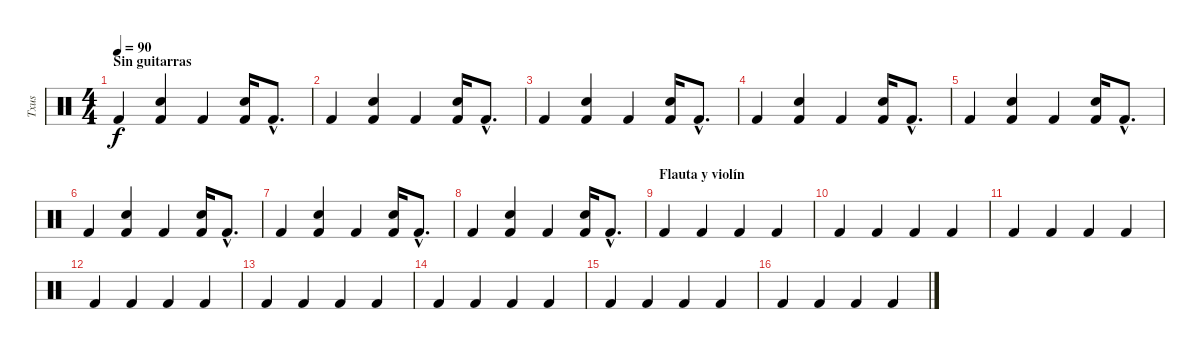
\track ("Txus" "Txus") {instrument percussion}
\staff {score}
\articulation defaults
\ts (4 4)
\section ("" "Sin guitarras")
\tempo 90
\clef neutral
\ks c "Kick (hit) 2".4{dy f}
("Kick (hit) 2" "Electric Snare (hit)").4 "Kick (hit) 2".4 ("Kick (hit) 2" "Electric Snare (hit)").16 "Kick (hit) 2"{hac}.8{d} |
"Kick (hit) 2".4 ("Kick (hit) 2" "Electric Snare (hit)").4 "Kick (hit) 2".4 ("Kick (hit) 2" "Electric Snare (hit)").16 "Kick (hit) 2"{hac}.8{d} |
"Kick (hit) 2".4 ("Kick (hit) 2" "Electric Snare (hit)").4 "Kick (hit) 2".4 ("Kick (hit) 2" "Electric Snare (hit)").16 "Kick (hit) 2"{hac}.8{d} |
"Kick (hit) 2".4 ("Kick (hit) 2" "Electric Snare (hit)").4 "Kick (hit) 2".4 ("Kick (hit) 2" "Electric Snare (hit)").16 "Kick (hit) 2"{hac}.8{d} |
"Kick (hit) 2".4 ("Kick (hit) 2" "Electric Snare (hit)").4 "Kick (hit) 2".4 ("Kick (hit) 2" "Electric Snare (hit)").16 "Kick (hit) 2"{hac}.8{d} |
"Kick (hit) 2".4 ("Kick (hit) 2" "Electric Snare (hit)").4 "Kick (hit) 2".4 ("Kick (hit) 2" "Electric Snare (hit)").16 "Kick (hit) 2"{hac}.8{d} |
"Kick (hit) 2".4 ("Kick (hit) 2" "Electric Snare (hit)").4 "Kick (hit) 2".4 ("Kick (hit) 2" "Electric Snare (hit)").16 "Kick (hit) 2"{hac}.8{d} |
"Kick (hit) 2".4 ("Kick (hit) 2" "Electric Snare (hit)").4 "Kick (hit) 2".4 ("Kick (hit) 2" "Electric Snare (hit)").16 "Kick (hit) 2"{hac}.8{d} |
\section ("" "Flauta y violín")
"Kick (hit) 2".4 "Kick (hit) 2".4 "Kick (hit) 2".4 "Kick (hit) 2".4 |
"Kick (hit) 2".4 "Kick (hit) 2".4 "Kick (hit) 2".4 "Kick (hit) 2".4 |
"Kick (hit) 2".4 "Kick (hit) 2".4 "Kick (hit) 2".4 "Kick (hit) 2".4 |
"Kick (hit) 2".4 "Kick (hit) 2".4 "Kick (hit) 2".4 "Kick (hit) 2".4 |
"Kick (hit) 2".4 "Kick (hit) 2".4 "Kick (hit) 2".4 "Kick (hit) 2".4 |
"Kick (hit) 2".4 "Kick (hit) 2".4 "Kick (hit) 2".4 "Kick (hit) 2".4 |
"Kick (hit) 2".4 "Kick (hit) 2".4 "Kick (hit) 2".4 "Kick (hit) 2".4 |
"Kick (hit) 2".4 "Kick (hit) 2".4 "Kick (hit) 2".4 "Kick (hit) 2".4
